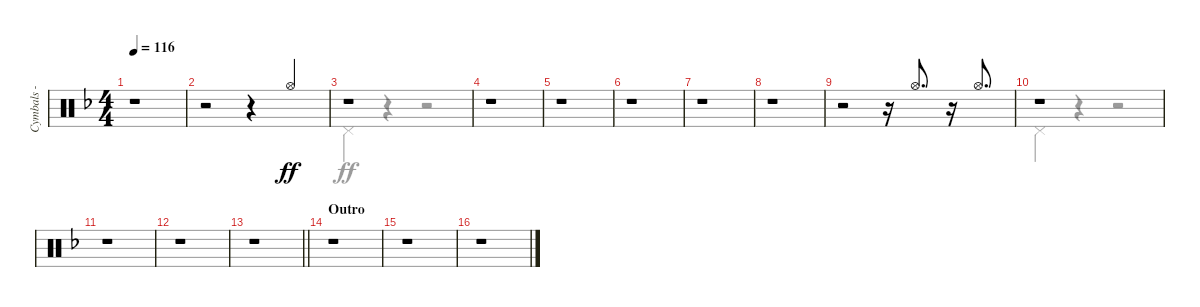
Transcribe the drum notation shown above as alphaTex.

\track ("Cymbals - hi-hat" "Cymbals - ") {instrument percussion}
\staff {score}
\articulation defaults
\voice
\ts (4 4)
\tempo 116
\clef neutral
\ks f
r.1{dy ff} |
r.2 r.4{beam merge} "Hi-Hat (open)".4{beam Up} |
r.1 |
r.1 |
r.1 |
r.1 |
r.1 |
r.1 |
r.2 r.16 "Hi-Hat (open)".8{d beam Up} r.16 "Hi-Hat (open)".8{d beam Up} |
r.1 |
r.1 |
r.1 |
\barLineRight lightlight
r.1 |
\section ("" "Outro")
r.1 |
r.1 |
r.1
\voice
\clef neutral
\ottava regular
\simile none
\ks f
|
|
"Pedal Hi-Hat (hit)".4 r.4 r.2 |
|
|
|
|
|
|
"Pedal Hi-Hat (hit)".4 r.4 r.2 |
|
|
\barLineRight lightlight
|
|
|
